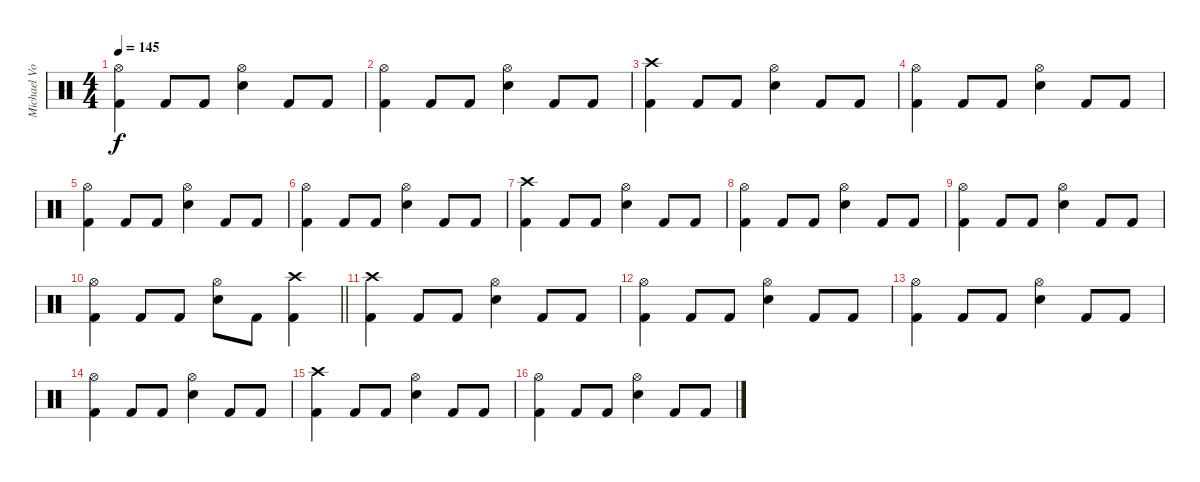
\track ("Michael Von Knorring" "Michael Vo") {instrument percussion}
\staff {score}
\articulation defaults
\ts (4 4)
\tempo 145
\clef neutral
\ks c
("Hi-Hat (open)" "Kick (hit) 2").4{dy f} "Kick (hit) 2".8 "Kick (hit) 2".8 ("Hi-Hat (open)" "Snare (hit) 2").4 "Kick (hit) 2".8 "Kick (hit) 2".8 |
("Hi-Hat (open)" "Kick (hit) 2").4 "Kick (hit) 2".8 "Kick (hit) 2".8 ("Hi-Hat (open)" "Snare (hit) 2").4 "Kick (hit) 2".8 "Kick (hit) 2".8 |
("Crash high (hit)" "Kick (hit) 2").4 "Kick (hit) 2".8 "Kick (hit) 2".8 ("Hi-Hat (open)" "Snare (hit) 2").4 "Kick (hit) 2".8 "Kick (hit) 2".8 |
("Hi-Hat (open)" "Kick (hit) 2").4 "Kick (hit) 2".8 "Kick (hit) 2".8 ("Hi-Hat (open)" "Snare (hit) 2").4 "Kick (hit) 2".8 "Kick (hit) 2".8 |
("Hi-Hat (open)" "Kick (hit) 2").4 "Kick (hit) 2".8 "Kick (hit) 2".8 ("Hi-Hat (open)" "Snare (hit) 2").4 "Kick (hit) 2".8 "Kick (hit) 2".8 |
("Hi-Hat (open)" "Kick (hit) 2").4 "Kick (hit) 2".8 "Kick (hit) 2".8 ("Hi-Hat (open)" "Snare (hit) 2").4 "Kick (hit) 2".8 "Kick (hit) 2".8 |
("Crash high (hit)" "Kick (hit) 2").4 "Kick (hit) 2".8 "Kick (hit) 2".8 ("Hi-Hat (open)" "Snare (hit) 2").4 "Kick (hit) 2".8 "Kick (hit) 2".8 |
("Hi-Hat (open)" "Kick (hit) 2").4 "Kick (hit) 2".8 "Kick (hit) 2".8 ("Hi-Hat (open)" "Snare (hit) 2").4 "Kick (hit) 2".8 "Kick (hit) 2".8 |
("Hi-Hat (open)" "Kick (hit) 2").4 "Kick (hit) 2".8 "Kick (hit) 2".8 ("Hi-Hat (open)" "Snare (hit) 2").4 "Kick (hit) 2".8 "Kick (hit) 2".8 |
\barLineRight lightlight
("Hi-Hat (open)" "Kick (hit) 2").4 "Kick (hit) 2".8 "Kick (hit) 2".8 ("Hi-Hat (open)" "Snare (hit) 2").8 "Kick (hit) 2".8 ("Crash high (hit)" "Kick (hit) 2").4 |
("Crash high (hit)" "Kick (hit) 2").4 "Kick (hit) 2".8 "Kick (hit) 2".8 ("Hi-Hat (open)" "Snare (hit) 2").4 "Kick (hit) 2".8 "Kick (hit) 2".8 |
("Hi-Hat (open)" "Kick (hit) 2").4 "Kick (hit) 2".8 "Kick (hit) 2".8 ("Hi-Hat (open)" "Snare (hit) 2").4 "Kick (hit) 2".8 "Kick (hit) 2".8 |
("Hi-Hat (open)" "Kick (hit) 2").4 "Kick (hit) 2".8 "Kick (hit) 2".8 ("Hi-Hat (open)" "Snare (hit) 2").4 "Kick (hit) 2".8 "Kick (hit) 2".8 |
("Hi-Hat (open)" "Kick (hit) 2").4 "Kick (hit) 2".8 "Kick (hit) 2".8 ("Hi-Hat (open)" "Snare (hit) 2").4 "Kick (hit) 2".8 "Kick (hit) 2".8 |
("Crash high (hit)" "Kick (hit) 2").4 "Kick (hit) 2".8 "Kick (hit) 2".8 ("Hi-Hat (open)" "Snare (hit) 2").4 "Kick (hit) 2".8 "Kick (hit) 2".8 |
("Hi-Hat (open)" "Kick (hit) 2").4 "Kick (hit) 2".8 "Kick (hit) 2".8 ("Hi-Hat (open)" "Snare (hit) 2").4 "Kick (hit) 2".8 "Kick (hit) 2".8
